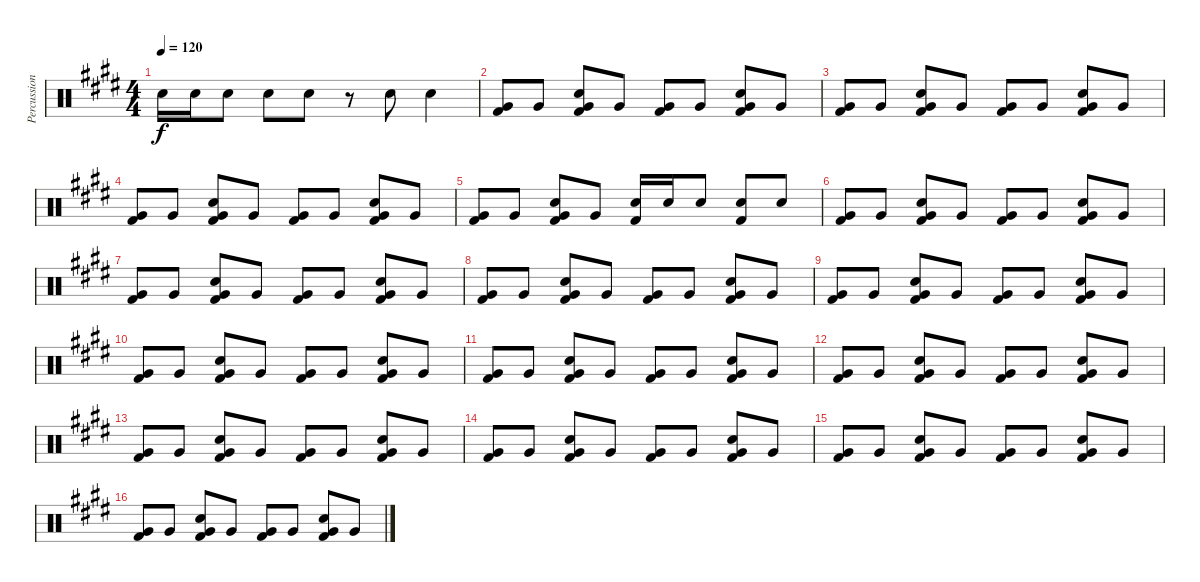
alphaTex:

\track ("Percussion" "Percussion") {instrument percussion}
\staff {score}
\articulation defaults
\ts (4 4)
\tempo 120
\clef neutral
\ks e "Snare (hit) 2".16{dy f} "Snare (hit) 2".16 "Snare (hit) 2".8 "Snare (hit) 2".8 "Snare (hit) 2".8
r.8 "Snare (hit) 2".8 "Snare (hit) 2".4 |
("Very Low Tom (hit)" "Kick (hit) 2").8 "Very Low Tom (hit)".8 ("Snare (hit) 2" "Very Low Tom (hit)" "Kick (hit) 2").8 "Very Low Tom (hit)".8 ("Very Low Tom (hit)" "Kick (hit) 2").8 "Very Low Tom (hit)".8 ("Snare (hit) 2" "Very Low Tom (hit)" "Kick (hit) 2").8 "Very Low Tom (hit)".8 |
("Very Low Tom (hit)" "Kick (hit) 2").8 "Very Low Tom (hit)".8 ("Snare (hit) 2" "Very Low Tom (hit)" "Kick (hit) 2").8 "Very Low Tom (hit)".8 ("Very Low Tom (hit)" "Kick (hit) 2").8 "Very Low Tom (hit)".8 ("Snare (hit) 2" "Very Low Tom (hit)" "Kick (hit) 2").8 "Very Low Tom (hit)".8 |
("Very Low Tom (hit)" "Kick (hit) 2").8 "Very Low Tom (hit)".8 ("Snare (hit) 2" "Very Low Tom (hit)" "Kick (hit) 2").8 "Very Low Tom (hit)".8 ("Very Low Tom (hit)" "Kick (hit) 2").8 "Very Low Tom (hit)".8 ("Snare (hit) 2" "Very Low Tom (hit)" "Kick (hit) 2").8 "Very Low Tom (hit)".8 |
("Very Low Tom (hit)" "Kick (hit) 2").8 "Very Low Tom (hit)".8 ("Snare (hit) 2" "Very Low Tom (hit)" "Kick (hit) 2").8 "Very Low Tom (hit)".8 ("Snare (hit) 2" "Kick (hit) 2").16 "Snare (hit) 2".16 "Snare (hit) 2".8 ("Snare (hit) 2" "Kick (hit) 2").8 "Snare (hit) 2".8 |
("Very Low Tom (hit)" "Kick (hit) 2").8 "Very Low Tom (hit)".8 ("Snare (hit) 2" "Very Low Tom (hit)" "Kick (hit) 2").8 "Very Low Tom (hit)".8 ("Very Low Tom (hit)" "Kick (hit) 2").8 "Very Low Tom (hit)".8 ("Snare (hit) 2" "Very Low Tom (hit)" "Kick (hit) 2").8 "Very Low Tom (hit)".8 |
("Very Low Tom (hit)" "Kick (hit) 2").8 "Very Low Tom (hit)".8 ("Snare (hit) 2" "Very Low Tom (hit)" "Kick (hit) 2").8 "Very Low Tom (hit)".8 ("Very Low Tom (hit)" "Kick (hit) 2").8 "Very Low Tom (hit)".8 ("Snare (hit) 2" "Very Low Tom (hit)" "Kick (hit) 2").8 "Very Low Tom (hit)".8 |
("Very Low Tom (hit)" "Kick (hit) 2").8 "Very Low Tom (hit)".8 ("Snare (hit) 2" "Very Low Tom (hit)" "Kick (hit) 2").8 "Very Low Tom (hit)".8 ("Very Low Tom (hit)" "Kick (hit) 2").8 "Very Low Tom (hit)".8 ("Snare (hit) 2" "Very Low Tom (hit)" "Kick (hit) 2").8 "Very Low Tom (hit)".8 |
("Very Low Tom (hit)" "Kick (hit) 2").8 "Very Low Tom (hit)".8 ("Snare (hit) 2" "Very Low Tom (hit)" "Kick (hit) 2").8 "Very Low Tom (hit)".8 ("Very Low Tom (hit)" "Kick (hit) 2").8 "Very Low Tom (hit)".8 ("Snare (hit) 2" "Very Low Tom (hit)" "Kick (hit) 2").8 "Very Low Tom (hit)".8 |
("Very Low Tom (hit)" "Kick (hit) 2").8 "Very Low Tom (hit)".8 ("Snare (hit) 2" "Very Low Tom (hit)" "Kick (hit) 2").8 "Very Low Tom (hit)".8 ("Very Low Tom (hit)" "Kick (hit) 2").8 "Very Low Tom (hit)".8 ("Snare (hit) 2" "Very Low Tom (hit)" "Kick (hit) 2").8 "Very Low Tom (hit)".8 |
("Very Low Tom (hit)" "Kick (hit) 2").8 "Very Low Tom (hit)".8 ("Snare (hit) 2" "Very Low Tom (hit)" "Kick (hit) 2").8 "Very Low Tom (hit)".8 ("Very Low Tom (hit)" "Kick (hit) 2").8 "Very Low Tom (hit)".8 ("Snare (hit) 2" "Very Low Tom (hit)" "Kick (hit) 2").8 "Very Low Tom (hit)".8 |
("Very Low Tom (hit)" "Kick (hit) 2").8 "Very Low Tom (hit)".8 ("Snare (hit) 2" "Very Low Tom (hit)" "Kick (hit) 2").8 "Very Low Tom (hit)".8 ("Very Low Tom (hit)" "Kick (hit) 2").8 "Very Low Tom (hit)".8 ("Snare (hit) 2" "Very Low Tom (hit)" "Kick (hit) 2").8 "Very Low Tom (hit)".8 |
("Very Low Tom (hit)" "Kick (hit) 2").8 "Very Low Tom (hit)".8 ("Snare (hit) 2" "Very Low Tom (hit)" "Kick (hit) 2").8 "Very Low Tom (hit)".8 ("Very Low Tom (hit)" "Kick (hit) 2").8 "Very Low Tom (hit)".8 ("Snare (hit) 2" "Very Low Tom (hit)" "Kick (hit) 2").8 "Very Low Tom (hit)".8 |
("Very Low Tom (hit)" "Kick (hit) 2").8 "Very Low Tom (hit)".8 ("Snare (hit) 2" "Very Low Tom (hit)" "Kick (hit) 2").8 "Very Low Tom (hit)".8 ("Very Low Tom (hit)" "Kick (hit) 2").8 "Very Low Tom (hit)".8 ("Snare (hit) 2" "Very Low Tom (hit)" "Kick (hit) 2").8 "Very Low Tom (hit)".8 |
("Very Low Tom (hit)" "Kick (hit) 2").8 "Very Low Tom (hit)".8 ("Snare (hit) 2" "Very Low Tom (hit)" "Kick (hit) 2").8 "Very Low Tom (hit)".8 ("Very Low Tom (hit)" "Kick (hit) 2").8 "Very Low Tom (hit)".8 ("Snare (hit) 2" "Very Low Tom (hit)" "Kick (hit) 2").8 "Very Low Tom (hit)".8 |
("Very Low Tom (hit)" "Kick (hit) 2").8 "Very Low Tom (hit)".8 ("Snare (hit) 2" "Very Low Tom (hit)" "Kick (hit) 2").8 "Very Low Tom (hit)".8 ("Very Low Tom (hit)" "Kick (hit) 2").8 "Very Low Tom (hit)".8 ("Snare (hit) 2" "Very Low Tom (hit)" "Kick (hit) 2").8 "Very Low Tom (hit)".8
